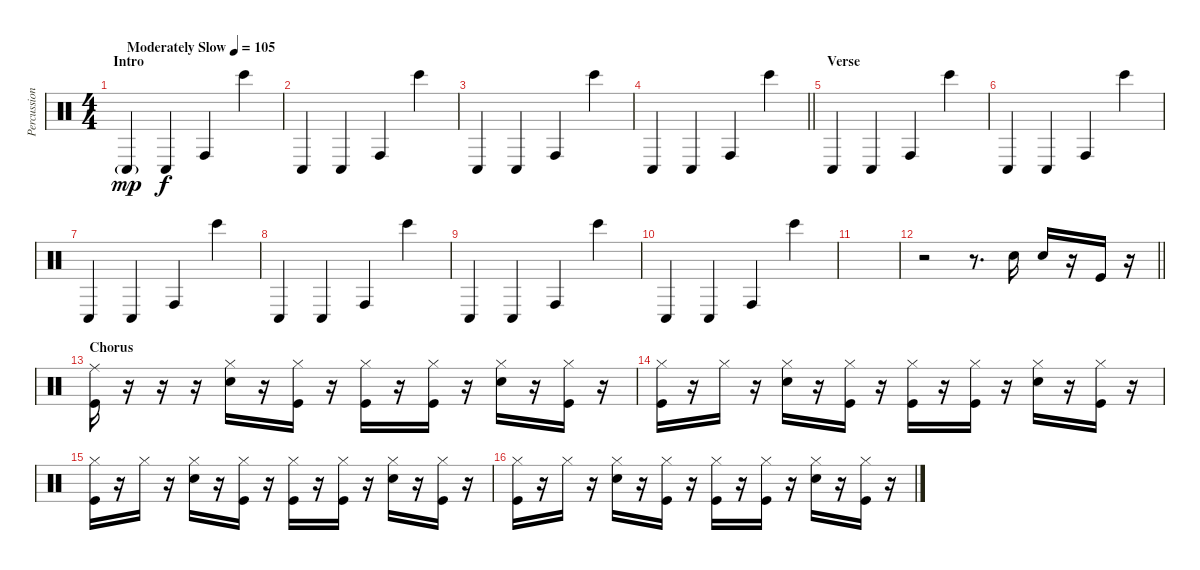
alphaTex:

\track ("Percussion" "Percussion") {instrument percussion}
\staff {score}
\articulation defaults
\ts (4 4)
\section ("" "Intro")
\tempo (105 "Moderately Slow")
\clef neutral
\ks c "Conga low (hit)"{g}.4{dy mp} "Conga low (hit)".4{dy f} "Conga high (hit)".4 "Bongo High (hit)".4
|
"Conga low (hit)".4 "Conga low (hit)".4 "Conga high (hit)".4 "Bongo High (hit)".4 |
"Conga low (hit)".4 "Conga low (hit)".4 "Conga high (hit)".4 "Bongo High (hit)".4 |
\barLineRight lightlight "Conga low (hit)".4 "Conga low (hit)".4 "Conga high (hit)".4 "Bongo High (hit)".4
|
\section ("" "Verse")
"Conga low (hit)".4 "Conga low (hit)".4 "Conga high (hit)".4 "Bongo High (hit)".4 |
"Conga low (hit)".4 "Conga low (hit)".4 "Conga high (hit)".4 "Bongo High (hit)".4 |
"Conga low (hit)".4 "Conga low (hit)".4 "Conga high (hit)".4 "Bongo High (hit)".4 |
"Conga low (hit)".4 "Conga low (hit)".4 "Conga high (hit)".4 "Bongo High (hit)".4 |
"Conga low (hit)".4 "Conga low (hit)".4 "Conga high (hit)".4 "Bongo High (hit)".4 |
"Conga low (hit)".4 "Conga low (hit)".4 "Conga high (hit)".4 "Bongo High (hit)".4 |
|
\barLineRight lightlight
r.2 r.8{d} "Snare (hit) 2".16 "Snare (hit) 2".16 r.16 "Kick (hit)".16 r.16 |
\section ("" "Chorus")
("Ride (middle)" "Kick (hit)").16 r.16 r.16 r.16 ("Hi-Hat (closed)" "Snare (hit) 2").16 r.16 ("Hi-Hat (closed)" "Kick (hit)").16 r.16 ("Hi-Hat (closed)" "Kick (hit)").16 r.16 ("Hi-Hat (closed)" "Kick (hit)").16 r.16 ("Hi-Hat (closed)" "Snare (hit) 2").16 r.16 ("Hi-Hat (closed)" "Kick (hit)").16 r.16 |
("Hi-Hat (closed)" "Kick (hit)").16 r.16 "Hi-Hat (closed)".16 r.16 ("Hi-Hat (closed)" "Snare (hit) 2").16 r.16 ("Hi-Hat (closed)" "Kick (hit)").16 r.16 ("Hi-Hat (closed)" "Kick (hit)").16 r.16 ("Hi-Hat (closed)" "Kick (hit)").16 r.16 ("Hi-Hat (closed)" "Snare (hit) 2").16 r.16 ("Hi-Hat (closed)" "Kick (hit)").16 r.16 |
("Hi-Hat (closed)" "Kick (hit)").16 r.16 "Hi-Hat (closed)".16 r.16 ("Hi-Hat (closed)" "Snare (hit) 2").16 r.16 ("Hi-Hat (closed)" "Kick (hit)").16 r.16 ("Hi-Hat (closed)" "Kick (hit)").16 r.16 ("Hi-Hat (closed)" "Kick (hit)").16 r.16 ("Hi-Hat (closed)" "Snare (hit) 2").16 r.16 ("Hi-Hat (closed)" "Kick (hit)").16 r.16 |
("Hi-Hat (closed)" "Kick (hit)").16 r.16 "Hi-Hat (closed)".16 r.16 ("Hi-Hat (closed)" "Snare (hit) 2").16 r.16 ("Hi-Hat (closed)" "Kick (hit)").16 r.16 ("Hi-Hat (closed)" "Kick (hit)").16 r.16 ("Hi-Hat (closed)" "Kick (hit)").16 r.16 ("Hi-Hat (closed)" "Snare (hit) 2").16 r.16 ("Hi-Hat (closed)" "Kick (hit)").16 r.16
